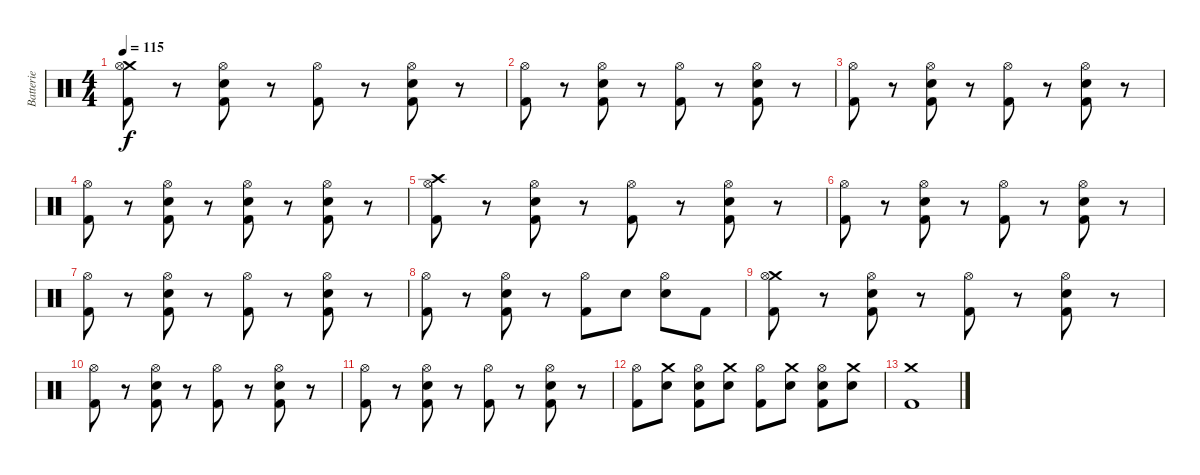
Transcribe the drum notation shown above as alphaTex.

\track ("Batterie" "Batterie") {instrument percussion}
\staff {score}
\articulation defaults
\ts (4 4)
\tempo 115
\clef neutral
\ks c
("Crash medium (hit)" "Hi-Hat (open)" "Kick (hit) 2").8{dy f} r.8 ("Electric Snare (hit)" "Hi-Hat (open)" "Kick (hit) 2").8 r.8 ("Hi-Hat (open)" "Kick (hit) 2").8 r.8 ("Electric Snare (hit)" "Hi-Hat (open)" "Kick (hit) 2").8 r.8 |
("Hi-Hat (open)" "Kick (hit) 2").8 r.8 ("Electric Snare (hit)" "Hi-Hat (open)" "Kick (hit) 2").8 r.8 ("Hi-Hat (open)" "Kick (hit) 2").8 r.8 ("Electric Snare (hit)" "Hi-Hat (open)" "Kick (hit) 2").8 r.8 |
("Hi-Hat (open)" "Kick (hit) 2").8 r.8 ("Electric Snare (hit)" "Hi-Hat (open)" "Kick (hit) 2").8 r.8 ("Hi-Hat (open)" "Kick (hit) 2").8 r.8 ("Electric Snare (hit)" "Hi-Hat (open)" "Kick (hit) 2").8 r.8 |
("Hi-Hat (open)" "Kick (hit) 2").8 r.8 ("Electric Snare (hit)" "Hi-Hat (open)" "Kick (hit) 2").8 r.8 ("Electric Snare (hit)" "Hi-Hat (open)" "Kick (hit) 2").8 r.8 ("Electric Snare (hit)" "Hi-Hat (open)" "Kick (hit) 2").8 r.8 |
("Crash high (hit)" "Hi-Hat (open)" "Kick (hit) 2").8 r.8 ("Electric Snare (hit)" "Hi-Hat (open)" "Kick (hit) 2").8 r.8 ("Hi-Hat (open)" "Kick (hit) 2").8 r.8 ("Electric Snare (hit)" "Hi-Hat (open)" "Kick (hit) 2").8 r.8 |
("Hi-Hat (open)" "Kick (hit) 2").8 r.8 ("Electric Snare (hit)" "Hi-Hat (open)" "Kick (hit) 2").8 r.8 ("Hi-Hat (open)" "Kick (hit) 2").8 r.8 ("Electric Snare (hit)" "Hi-Hat (open)" "Kick (hit) 2").8 r.8 |
("Hi-Hat (open)" "Kick (hit) 2").8 r.8 ("Electric Snare (hit)" "Hi-Hat (open)" "Kick (hit) 2").8 r.8 ("Hi-Hat (open)" "Kick (hit) 2").8 r.8 ("Electric Snare (hit)" "Hi-Hat (open)" "Kick (hit) 2").8 r.8 |
("Hi-Hat (open)" "Kick (hit) 2").8 r.8 ("Electric Snare (hit)" "Hi-Hat (open)" "Kick (hit) 2").8 r.8 ("Hi-Hat (open)" "Kick (hit) 2").8 "Electric Snare (hit)".8 ("Electric Snare (hit)" "Hi-Hat (open)").8 "Kick (hit) 2".8 |
("Crash medium (hit)" "Hi-Hat (open)" "Kick (hit) 2").8 r.8 ("Electric Snare (hit)" "Hi-Hat (open)" "Kick (hit) 2").8 r.8 ("Hi-Hat (open)" "Kick (hit) 2").8 r.8 ("Electric Snare (hit)" "Hi-Hat (open)" "Kick (hit) 2").8 r.8 |
("Hi-Hat (open)" "Kick (hit) 2").8 r.8 ("Electric Snare (hit)" "Hi-Hat (open)" "Kick (hit) 2").8 r.8 ("Hi-Hat (open)" "Kick (hit) 2").8 r.8 ("Electric Snare (hit)" "Hi-Hat (open)" "Kick (hit) 2").8 r.8 |
("Hi-Hat (open)" "Kick (hit) 2").8 r.8 ("Electric Snare (hit)" "Hi-Hat (open)" "Kick (hit) 2").8 r.8 ("Hi-Hat (open)" "Kick (hit) 2").8 r.8 ("Electric Snare (hit)" "Hi-Hat (open)" "Kick (hit) 2").8 r.8 |
("Hi-Hat (open)" "Kick (hit) 2").8 ("Crash medium (hit)" "Electric Snare (hit)").8 ("Electric Snare (hit)" "Hi-Hat (open)" "Kick (hit) 2").8 ("Crash medium (hit)" "Electric Snare (hit)").8 ("Hi-Hat (open)" "Kick (hit) 2").8 ("Crash medium (hit)" "Electric Snare (hit)").8 ("Electric Snare (hit)" "Hi-Hat (open)" "Kick (hit) 2").8 ("Crash medium (hit)" "Electric Snare (hit)").8 |
("Crash medium (hit)" "Kick (hit) 2").1
